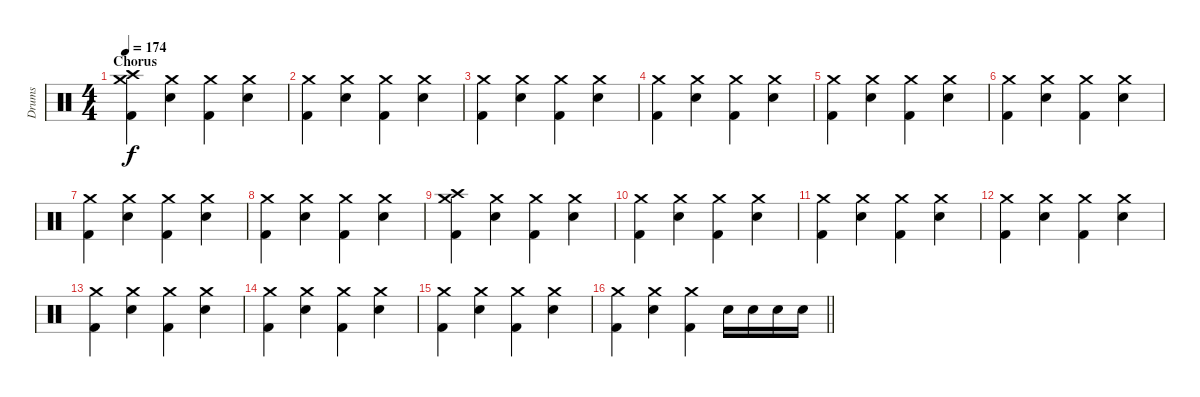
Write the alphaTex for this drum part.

\track ("Drums" "Drums") {instrument percussion}
\staff {score}
\articulation defaults
\ts (4 4)
\section ("" "Chorus")
\tempo 174
\clef neutral
\ks c
("Crash medium (hit)" "Crash high (hit)" "Kick (hit) 2").4{dy f} ("Crash medium (hit)" "Electric Snare (hit)").4 ("Crash medium (hit)" "Kick (hit) 2").4 ("Crash medium (hit)" "Electric Snare (hit)").4 |
("Crash medium (hit)" "Kick (hit) 2").4 ("Crash medium (hit)" "Electric Snare (hit)").4 ("Crash medium (hit)" "Kick (hit) 2").4 ("Crash medium (hit)" "Electric Snare (hit)").4 |
("Crash medium (hit)" "Kick (hit) 2").4 ("Crash medium (hit)" "Electric Snare (hit)").4 ("Crash medium (hit)" "Kick (hit) 2").4 ("Crash medium (hit)" "Electric Snare (hit)").4 |
("Crash medium (hit)" "Kick (hit) 2").4 ("Crash medium (hit)" "Electric Snare (hit)").4 ("Crash medium (hit)" "Kick (hit) 2").4 ("Crash medium (hit)" "Electric Snare (hit)").4 |
("Crash medium (hit)" "Kick (hit) 2").4 ("Crash medium (hit)" "Electric Snare (hit)").4 ("Crash medium (hit)" "Kick (hit) 2").4 ("Crash medium (hit)" "Electric Snare (hit)").4 |
("Crash medium (hit)" "Kick (hit) 2").4 ("Crash medium (hit)" "Electric Snare (hit)").4 ("Crash medium (hit)" "Kick (hit) 2").4 ("Crash medium (hit)" "Electric Snare (hit)").4 |
("Crash medium (hit)" "Kick (hit) 2").4 ("Crash medium (hit)" "Electric Snare (hit)").4 ("Crash medium (hit)" "Kick (hit) 2").4 ("Crash medium (hit)" "Electric Snare (hit)").4 |
("Crash medium (hit)" "Kick (hit) 2").4 ("Crash medium (hit)" "Electric Snare (hit)").4 ("Crash medium (hit)" "Kick (hit) 2").4 ("Crash medium (hit)" "Electric Snare (hit)").4 |
("Crash medium (hit)" "Crash high (hit)" "Kick (hit) 2").4 ("Crash medium (hit)" "Electric Snare (hit)").4 ("Crash medium (hit)" "Kick (hit) 2").4 ("Crash medium (hit)" "Electric Snare (hit)").4 |
("Crash medium (hit)" "Kick (hit) 2").4 ("Crash medium (hit)" "Electric Snare (hit)").4 ("Crash medium (hit)" "Kick (hit) 2").4 ("Crash medium (hit)" "Electric Snare (hit)").4 |
("Crash medium (hit)" "Kick (hit) 2").4 ("Crash medium (hit)" "Electric Snare (hit)").4 ("Crash medium (hit)" "Kick (hit) 2").4 ("Crash medium (hit)" "Electric Snare (hit)").4 |
("Crash medium (hit)" "Kick (hit) 2").4 ("Crash medium (hit)" "Electric Snare (hit)").4 ("Crash medium (hit)" "Kick (hit) 2").4 ("Crash medium (hit)" "Electric Snare (hit)").4 |
("Crash medium (hit)" "Kick (hit) 2").4 ("Crash medium (hit)" "Electric Snare (hit)").4 ("Crash medium (hit)" "Kick (hit) 2").4 ("Crash medium (hit)" "Electric Snare (hit)").4 |
("Crash medium (hit)" "Kick (hit) 2").4 ("Crash medium (hit)" "Electric Snare (hit)").4 ("Crash medium (hit)" "Kick (hit) 2").4 ("Crash medium (hit)" "Electric Snare (hit)").4 |
("Crash medium (hit)" "Kick (hit) 2").4 ("Crash medium (hit)" "Electric Snare (hit)").4 ("Crash medium (hit)" "Kick (hit) 2").4 ("Crash medium (hit)" "Electric Snare (hit)").4 |
\barLineRight lightlight
("Crash medium (hit)" "Kick (hit) 2").4 ("Crash medium (hit)" "Electric Snare (hit)").4 ("Crash medium (hit)" "Kick (hit) 2").4 "Electric Snare (hit)".16 "Electric Snare (hit)".16 "Electric Snare (hit)".16 "Electric Snare (hit)".16
